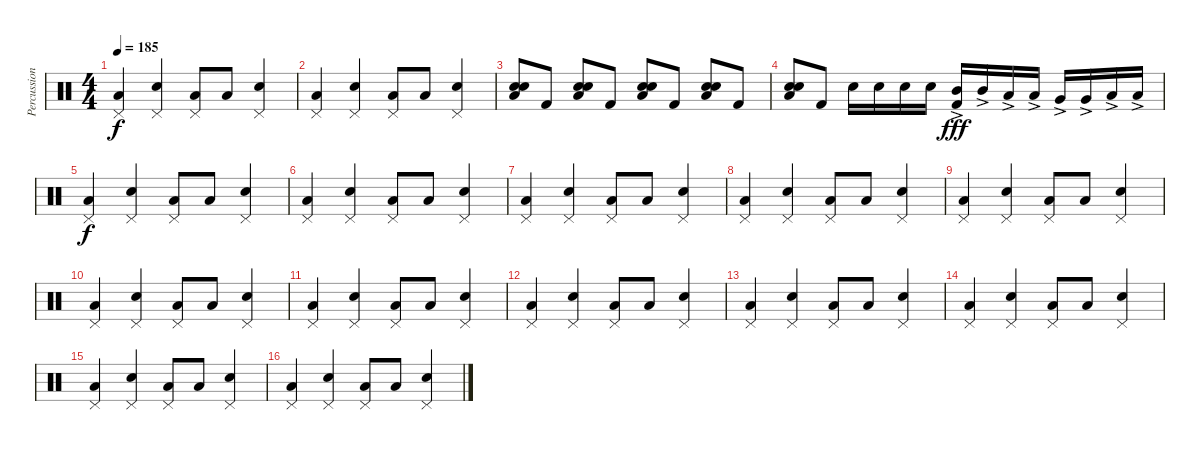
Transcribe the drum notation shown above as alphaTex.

\track ("Percussion" "Percussion") {instrument percussion}
\staff {score}
\articulation defaults
\ts (4 4)
\tempo 185
\clef neutral
\ks c
("Pedal Hi-Hat (hit)" "Low Tom (hit)").4{dy f} ("Pedal Hi-Hat (hit)" "Snare (hit) 2").4 ("Pedal Hi-Hat (hit)" "Low Tom (hit)").8 "Low Tom (hit)".8 ("Pedal Hi-Hat (hit)" "Snare (hit) 2").4 |
("Pedal Hi-Hat (hit)" "Low Tom (hit)").4 ("Pedal Hi-Hat (hit)" "Snare (hit) 2").4 ("Pedal Hi-Hat (hit)" "Low Tom (hit)").8 "Low Tom (hit)".8 ("Pedal Hi-Hat (hit)" "Snare (hit) 2").4 |
("Low Tom (hit)" "Electric Snare (hit)" "Snare (hit) 2").8 "Kick (hit) 2".8 ("Low Tom (hit)" "Electric Snare (hit)" "Snare (hit) 2").8 "Kick (hit) 2".8 ("Low Tom (hit)" "Electric Snare (hit)" "Snare (hit) 2").8 "Kick (hit) 2".8 ("Low Tom (hit)" "Electric Snare (hit)" "Snare (hit) 2").8 "Kick (hit) 2".8 |
("Low Tom (hit)" "Electric Snare (hit)" "Snare (hit) 2").8 "Kick (hit) 2".8 "Snare (hit) 2".16 "Snare (hit) 2".16 "Snare (hit) 2".16 "Snare (hit) 2".16 ("Mid Tom (hit)"{ac} "Kick (hit) 2"{ac}).16{dy fff} "Mid Tom (hit)"{ac}.16 "Low Tom (hit)"{ac}.16 "Low Tom (hit)"{ac}.16 "Very Low Tom (hit)"{ac}.16 "Very Low Tom (hit)"{ac}.16 "Low Floor Tom (hit)"{ac}.16 "Low Floor Tom (hit)"{ac}.16 |
("Pedal Hi-Hat (hit)" "Low Tom (hit)").4{dy f} ("Pedal Hi-Hat (hit)" "Snare (hit) 2").4 ("Pedal Hi-Hat (hit)" "Low Tom (hit)").8 "Low Tom (hit)".8 ("Pedal Hi-Hat (hit)" "Snare (hit) 2").4 |
("Pedal Hi-Hat (hit)" "Low Tom (hit)").4 ("Pedal Hi-Hat (hit)" "Snare (hit) 2").4 ("Pedal Hi-Hat (hit)" "Low Tom (hit)").8 "Low Tom (hit)".8 ("Pedal Hi-Hat (hit)" "Snare (hit) 2").4 |
("Pedal Hi-Hat (hit)" "Low Tom (hit)").4 ("Pedal Hi-Hat (hit)" "Snare (hit) 2").4 ("Pedal Hi-Hat (hit)" "Low Tom (hit)").8 "Low Tom (hit)".8 ("Pedal Hi-Hat (hit)" "Snare (hit) 2").4 |
("Pedal Hi-Hat (hit)" "Low Tom (hit)").4 ("Pedal Hi-Hat (hit)" "Snare (hit) 2").4 ("Pedal Hi-Hat (hit)" "Low Tom (hit)").8 "Low Tom (hit)".8 ("Pedal Hi-Hat (hit)" "Snare (hit) 2").4 |
("Pedal Hi-Hat (hit)" "Low Tom (hit)").4 ("Pedal Hi-Hat (hit)" "Snare (hit) 2").4 ("Pedal Hi-Hat (hit)" "Low Tom (hit)").8 "Low Tom (hit)".8 ("Pedal Hi-Hat (hit)" "Snare (hit) 2").4 |
("Pedal Hi-Hat (hit)" "Low Tom (hit)").4 ("Pedal Hi-Hat (hit)" "Snare (hit) 2").4 ("Pedal Hi-Hat (hit)" "Low Tom (hit)").8 "Low Tom (hit)".8 ("Pedal Hi-Hat (hit)" "Snare (hit) 2").4 |
("Pedal Hi-Hat (hit)" "Low Tom (hit)").4 ("Pedal Hi-Hat (hit)" "Snare (hit) 2").4 ("Pedal Hi-Hat (hit)" "Low Tom (hit)").8 "Low Tom (hit)".8 ("Pedal Hi-Hat (hit)" "Snare (hit) 2").4 |
("Pedal Hi-Hat (hit)" "Low Tom (hit)").4 ("Pedal Hi-Hat (hit)" "Snare (hit) 2").4 ("Pedal Hi-Hat (hit)" "Low Tom (hit)").8 "Low Tom (hit)".8 ("Pedal Hi-Hat (hit)" "Snare (hit) 2").4 |
("Pedal Hi-Hat (hit)" "Low Tom (hit)").4 ("Pedal Hi-Hat (hit)" "Snare (hit) 2").4 ("Pedal Hi-Hat (hit)" "Low Tom (hit)").8 "Low Tom (hit)".8 ("Pedal Hi-Hat (hit)" "Snare (hit) 2").4 |
("Pedal Hi-Hat (hit)" "Low Tom (hit)").4 ("Pedal Hi-Hat (hit)" "Snare (hit) 2").4 ("Pedal Hi-Hat (hit)" "Low Tom (hit)").8 "Low Tom (hit)".8 ("Pedal Hi-Hat (hit)" "Snare (hit) 2").4 |
("Pedal Hi-Hat (hit)" "Low Tom (hit)").4 ("Pedal Hi-Hat (hit)" "Snare (hit) 2").4 ("Pedal Hi-Hat (hit)" "Low Tom (hit)").8 "Low Tom (hit)".8 ("Pedal Hi-Hat (hit)" "Snare (hit) 2").4 |
("Pedal Hi-Hat (hit)" "Low Tom (hit)").4 ("Pedal Hi-Hat (hit)" "Snare (hit) 2").4 ("Pedal Hi-Hat (hit)" "Low Tom (hit)").8 "Low Tom (hit)".8 ("Pedal Hi-Hat (hit)" "Snare (hit) 2").4
